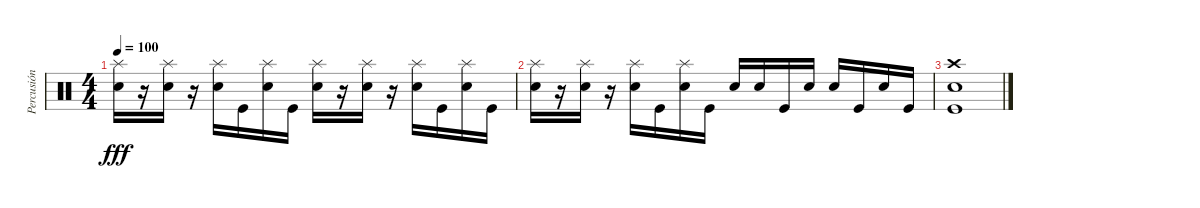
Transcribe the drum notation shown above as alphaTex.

\track ("Percusión" "Percusión") {instrument percussion}
\staff {score}
\articulation defaults
\ts (4 4)
\tempo 100
\clef neutral
\ks c
("Splash (hit)" "Snare (hit) 2").16{dy fff} r.16 ("Splash (hit)" "Snare (hit) 2").16 r.16 ("Splash (hit)" "Snare (hit) 2").16 "Kick (hit)".16 ("Splash (hit)" "Snare (hit) 2").16 "Kick (hit)".16 ("Splash (hit)" "Snare (hit) 2").16 r.16 ("Splash (hit)" "Snare (hit) 2").16 r.16 ("Splash (hit)" "Snare (hit) 2").16 "Kick (hit)".16 ("Splash (hit)" "Snare (hit) 2").16 "Kick (hit)".16 |
("Splash (hit)" "Snare (hit) 2").16 r.16 ("Splash (hit)" "Snare (hit) 2").16 r.16 ("Splash (hit)" "Snare (hit) 2").16 "Kick (hit)".16 ("Splash (hit)" "Snare (hit) 2").16 "Kick (hit)".16 "Snare (hit) 2".16 "Snare (hit) 2".16 "Kick (hit)".16 "Snare (hit) 2".16 "Snare (hit) 2".16 "Kick (hit)".16 "Snare (hit) 2".16 "Kick (hit)".16 |
("Crash high (hit)" "Snare (hit) 2" "Kick (hit)").1
